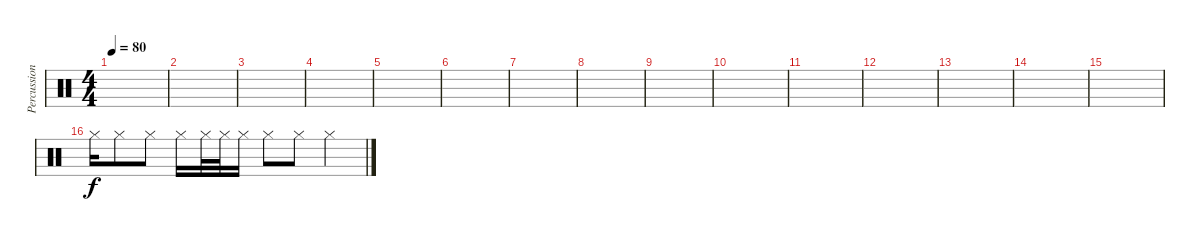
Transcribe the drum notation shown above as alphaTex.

\track ("Percussion" "Percussion") {instrument percussion}
\staff {score}
\articulation defaults
\ts (4 4)
\tempo 80
\clef neutral
\ks c
|
|
|
|
|
|
|
|
|
|
|
|
|
|
|
"Hi-Hat (closed)".16 "Hi-Hat (closed)".8 "Hi-Hat (closed)".8 "Hi-Hat (closed)".16 "Hi-Hat (closed)".32 "Hi-Hat (closed)".32 "Hi-Hat (closed)".16 "Hi-Hat (closed)".8 "Hi-Hat (closed)".8 "Hi-Hat (closed)".4
